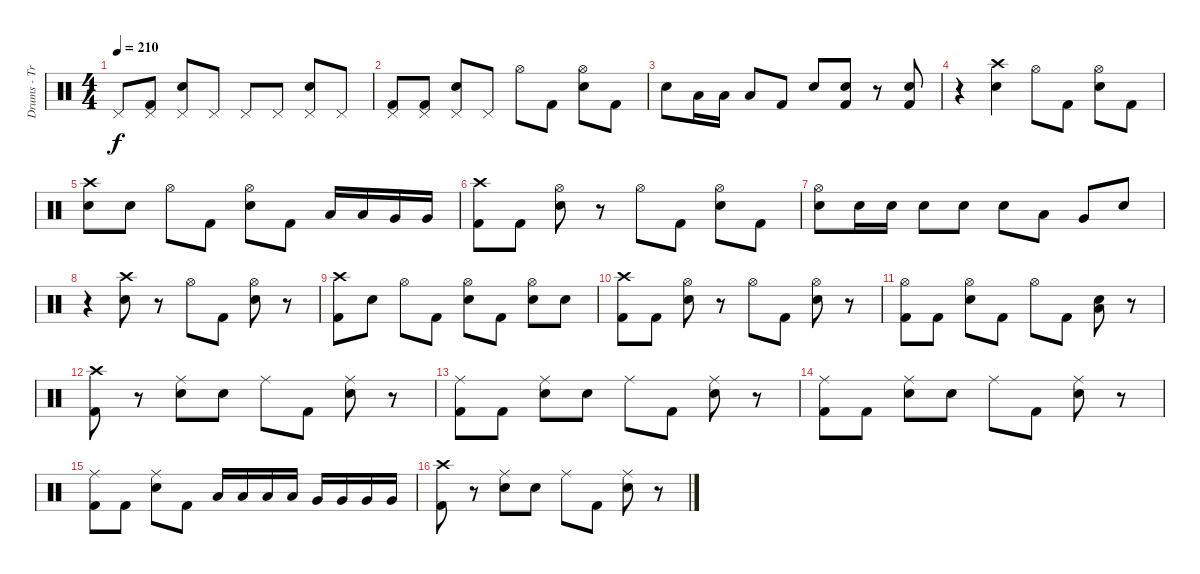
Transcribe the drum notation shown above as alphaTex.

\track ("Drums - Travis Barker" "Drums - Tr") {instrument percussion}
\staff {score}
\articulation defaults
\ts (4 4)
\tempo 210
\clef neutral
\ks c "Pedal Hi-Hat (hit)".8{dy f}
("Pedal Hi-Hat (hit)" "Kick (hit) 2").8 ("Pedal Hi-Hat (hit)" "Electric Snare (hit)").8 "Pedal Hi-Hat (hit)".8 "Pedal Hi-Hat (hit)".8 "Pedal Hi-Hat (hit)".8 ("Pedal Hi-Hat (hit)" "Electric Snare (hit)").8 "Pedal Hi-Hat (hit)".8 |
("Pedal Hi-Hat (hit)" "Kick (hit) 2").8 ("Pedal Hi-Hat (hit)" "Kick (hit) 2").8 ("Pedal Hi-Hat (hit)" "Electric Snare (hit)").8 "Pedal Hi-Hat (hit)".8 "Hi-Hat (open)".8 "Kick (hit) 2".8 ("Hi-Hat (open)" "Electric Snare (hit)").8 "Kick (hit) 2".8 |
"Electric Snare (hit)".8 "Low Tom (hit)".16 "Low Tom (hit)".16 "Low Tom (hit)".8 "Kick (hit) 2".8 "Electric Snare (hit)".8 ("Snare (hit)"{x} "Kick (hit) 2").8 r.8 ("Snare (hit)"{x} "Kick (hit) 2").8 |
r.4 ("Crash high (hit)" "Electric Snare (hit)").4 "Hi-Hat (open)".8 "Kick (hit) 2".8 ("Hi-Hat (open)" "Electric Snare (hit)").8 "Kick (hit) 2".8 |
("Crash high (hit)" "Electric Snare (hit)").8 "Electric Snare (hit)".8 "Hi-Hat (open)".8 "Kick (hit) 2".8 ("Hi-Hat (open)" "Electric Snare (hit)").8 "Kick (hit) 2".8 "Low Tom (hit)".16 "Low Tom (hit)".16 "Very Low Tom (hit)".16 "Very Low Tom (hit)".16 |
("Crash high (hit)" "Kick (hit) 2").8 "Kick (hit) 2".8 ("Hi-Hat (open)" "Electric Snare (hit)").8 r.8 "Hi-Hat (open)".8 "Kick (hit) 2".8 ("Hi-Hat (open)" "Electric Snare (hit)").8 "Kick (hit) 2".8 |
("Hi-Hat (open)" "Electric Snare (hit)").8 "Electric Snare (hit)".16 "Electric Snare (hit)".16 "Electric Snare (hit)".8 "Electric Snare (hit)".8 "Electric Snare (hit)".8 "Low Tom (hit)".8 "Very Low Tom (hit)".8 "Electric Snare (hit)".8 |
r.4 ("Crash high (hit)" "Electric Snare (hit)").8 r.8 "Hi-Hat (open)".8 "Kick (hit) 2".8 ("Hi-Hat (open)" "Electric Snare (hit)").8 r.8 |
("Crash high (hit)" "Kick (hit) 2").8 "Electric Snare (hit)".8 "Hi-Hat (open)".8 "Kick (hit) 2".8 ("Hi-Hat (open)" "Electric Snare (hit)").8 "Kick (hit) 2".8 ("Hi-Hat (open)" "Electric Snare (hit)").8 "Electric Snare (hit)".8 |
("Crash high (hit)" "Kick (hit) 2").8 "Kick (hit) 2".8 ("Hi-Hat (open)" "Electric Snare (hit)").8 r.8 "Hi-Hat (open)".8 "Kick (hit) 2".8 ("Hi-Hat (open)" "Electric Snare (hit)").8 r.8 |
("Hi-Hat (open)" "Kick (hit) 2").8 "Kick (hit) 2".8 ("Hi-Hat (open)" "Electric Snare (hit)").8 "Kick (hit) 2".8 "Hi-Hat (open)".8 "Kick (hit) 2".8 ("Electric Snare (hit)" "Low Tom (hit)").8 r.8 |
("Crash high (hit)" "Kick (hit) 2").8 r.8 ("Ride (middle)" "Electric Snare (hit)").8 "Electric Snare (hit)".8 "Ride (middle)".8 "Kick (hit) 2".8 ("Ride (middle)" "Electric Snare (hit)").8 r.8 |
("Ride (middle)" "Kick (hit) 2").8 "Kick (hit) 2".8 ("Ride (middle)" "Electric Snare (hit)").8 "Electric Snare (hit)".8 "Ride (middle)".8 "Kick (hit) 2".8 ("Ride (middle)" "Electric Snare (hit)").8 r.8 |
("Ride (middle)" "Kick (hit) 2").8 "Kick (hit) 2".8 ("Ride (middle)" "Electric Snare (hit)").8 "Electric Snare (hit)".8 "Ride (middle)".8 "Kick (hit) 2".8 ("Ride (middle)" "Electric Snare (hit)").8 r.8 |
("Ride (middle)" "Kick (hit) 2").8 "Kick (hit) 2".8 ("Ride (middle)" "Electric Snare (hit)").8 "Kick (hit) 2".8 "Low Tom (hit)".16 "Low Tom (hit)".16 "Low Tom (hit)".16 "Low Tom (hit)".16 "Very Low Tom (hit)".16 "Very Low Tom (hit)".16 "Very Low Tom (hit)".16 "Very Low Tom (hit)".16 |
("Crash high (hit)" "Kick (hit) 2").8 r.8 ("Ride (middle)" "Electric Snare (hit)").8 "Electric Snare (hit)".8 "Ride (middle)".8 "Kick (hit) 2".8 ("Ride (middle)" "Electric Snare (hit)").8 r.8
